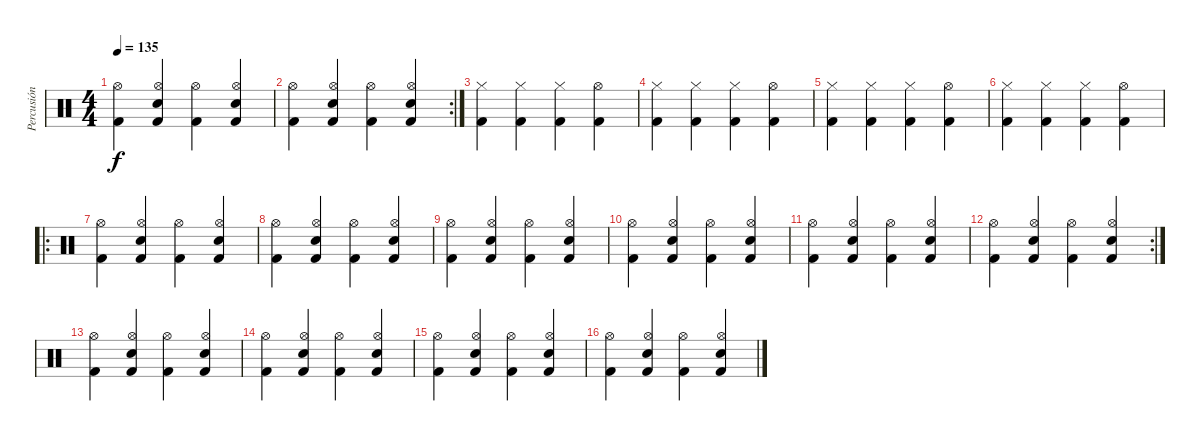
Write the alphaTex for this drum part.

\track ("Percusión" "Percusión") {instrument percussion}
\staff {score}
\articulation defaults
\ts (4 4)
\tempo 135
\clef neutral
\ks c
("Kick (hit) 2" "Hi-Hat (open)").4{dy f} ("Kick (hit) 2" "Electric Snare (hit)" "Hi-Hat (open)").4 ("Kick (hit) 2" "Hi-Hat (open)").4 ("Kick (hit) 2" "Electric Snare (hit)" "Hi-Hat (open)").4 |
\rc 2
("Kick (hit) 2" "Hi-Hat (open)").4 ("Kick (hit) 2" "Electric Snare (hit)" "Hi-Hat (open)").4 ("Kick (hit) 2" "Hi-Hat (open)").4 ("Kick (hit) 2" "Electric Snare (hit)" "Hi-Hat (open)").4 |
("Kick (hit) 2" "Hi-Hat (closed)").4 ("Kick (hit) 2" "Hi-Hat (closed)").4 ("Kick (hit) 2" "Hi-Hat (closed)").4 ("Kick (hit) 2" "Hi-Hat (open)").4 |
("Kick (hit) 2" "Hi-Hat (closed)").4 ("Kick (hit) 2" "Hi-Hat (closed)").4 ("Kick (hit) 2" "Hi-Hat (closed)").4 ("Kick (hit) 2" "Hi-Hat (open)").4 |
("Kick (hit) 2" "Hi-Hat (closed)").4 ("Kick (hit) 2" "Hi-Hat (closed)").4 ("Kick (hit) 2" "Hi-Hat (closed)").4 ("Kick (hit) 2" "Hi-Hat (open)").4 |
("Kick (hit) 2" "Hi-Hat (closed)").4 ("Kick (hit) 2" "Hi-Hat (closed)").4 ("Kick (hit) 2" "Hi-Hat (closed)").4 ("Kick (hit) 2" "Hi-Hat (open)").4 |
\ro
("Kick (hit) 2" "Hi-Hat (open)").4 ("Kick (hit) 2" "Electric Snare (hit)" "Hi-Hat (open)").4 ("Kick (hit) 2" "Hi-Hat (open)").4 ("Kick (hit) 2" "Electric Snare (hit)" "Hi-Hat (open)").4 |
("Kick (hit) 2" "Hi-Hat (open)").4 ("Kick (hit) 2" "Electric Snare (hit)" "Hi-Hat (open)").4 ("Kick (hit) 2" "Hi-Hat (open)").4 ("Kick (hit) 2" "Electric Snare (hit)" "Hi-Hat (open)").4 |
("Kick (hit) 2" "Hi-Hat (open)").4 ("Kick (hit) 2" "Electric Snare (hit)" "Hi-Hat (open)").4 ("Kick (hit) 2" "Hi-Hat (open)").4 ("Kick (hit) 2" "Electric Snare (hit)" "Hi-Hat (open)").4 |
("Kick (hit) 2" "Hi-Hat (open)").4 ("Kick (hit) 2" "Electric Snare (hit)" "Hi-Hat (open)").4 ("Kick (hit) 2" "Hi-Hat (open)").4 ("Kick (hit) 2" "Electric Snare (hit)" "Hi-Hat (open)").4 |
("Kick (hit) 2" "Hi-Hat (open)").4 ("Kick (hit) 2" "Electric Snare (hit)" "Hi-Hat (open)").4 ("Kick (hit) 2" "Hi-Hat (open)").4 ("Kick (hit) 2" "Electric Snare (hit)" "Hi-Hat (open)").4 |
\rc 2
("Kick (hit) 2" "Hi-Hat (open)").4 ("Kick (hit) 2" "Electric Snare (hit)" "Hi-Hat (open)").4 ("Kick (hit) 2" "Hi-Hat (open)").4 ("Kick (hit) 2" "Electric Snare (hit)" "Hi-Hat (open)").4 |
("Kick (hit) 2" "Hi-Hat (open)").4 ("Kick (hit) 2" "Electric Snare (hit)" "Hi-Hat (open)").4 ("Kick (hit) 2" "Hi-Hat (open)").4 ("Kick (hit) 2" "Electric Snare (hit)" "Hi-Hat (open)").4 |
("Kick (hit) 2" "Hi-Hat (open)").4 ("Kick (hit) 2" "Electric Snare (hit)" "Hi-Hat (open)").4 ("Kick (hit) 2" "Hi-Hat (open)").4 ("Kick (hit) 2" "Electric Snare (hit)" "Hi-Hat (open)").4 |
("Kick (hit) 2" "Hi-Hat (open)").4 ("Kick (hit) 2" "Electric Snare (hit)" "Hi-Hat (open)").4 ("Kick (hit) 2" "Hi-Hat (open)").4 ("Kick (hit) 2" "Electric Snare (hit)" "Hi-Hat (open)").4 |
("Kick (hit) 2" "Hi-Hat (open)").4 ("Kick (hit) 2" "Electric Snare (hit)" "Hi-Hat (open)").4 ("Kick (hit) 2" "Hi-Hat (open)").4 ("Kick (hit) 2" "Electric Snare (hit)" "Hi-Hat (open)").4
